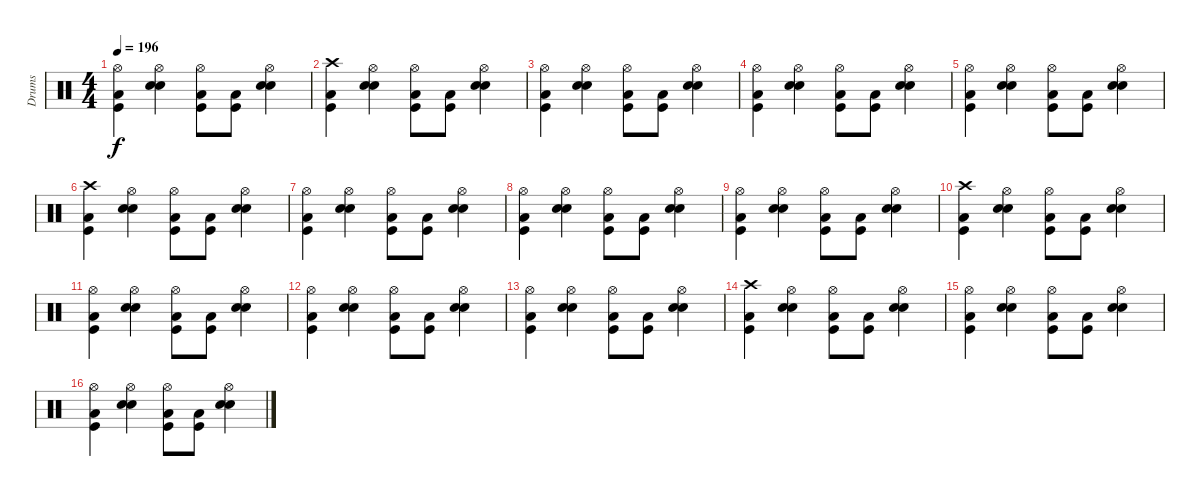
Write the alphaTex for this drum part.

\track ("Drums" "Drums") {instrument percussion}
\staff {score}
\articulation defaults
\ts (4 4)
\tempo 196
\clef neutral
\ks c
("Hi-Hat (open)" "Kick (hit)" "Low Tom (hit)").4{dy f} ("Hi-Hat (open)" "Snare (hit) 2" "Electric Snare (hit)").4 ("Hi-Hat (open)" "Kick (hit)" "Low Tom (hit)").8 ("Kick (hit)" "Low Tom (hit)").8 ("Hi-Hat (open)" "Snare (hit) 2" "Electric Snare (hit)").4 |
("Crash high (hit)" "Kick (hit)" "Low Tom (hit)").4 ("Hi-Hat (open)" "Snare (hit) 2" "Electric Snare (hit)").4 ("Hi-Hat (open)" "Kick (hit)" "Low Tom (hit)").8 ("Kick (hit)" "Low Tom (hit)").8 ("Hi-Hat (open)" "Snare (hit) 2" "Electric Snare (hit)").4 |
("Hi-Hat (open)" "Kick (hit)" "Low Tom (hit)").4 ("Hi-Hat (open)" "Snare (hit) 2" "Electric Snare (hit)").4 ("Hi-Hat (open)" "Kick (hit)" "Low Tom (hit)").8 ("Kick (hit)" "Low Tom (hit)").8 ("Hi-Hat (open)" "Snare (hit) 2" "Electric Snare (hit)").4 |
("Hi-Hat (open)" "Kick (hit)" "Low Tom (hit)").4 ("Hi-Hat (open)" "Snare (hit) 2" "Electric Snare (hit)").4 ("Hi-Hat (open)" "Kick (hit)" "Low Tom (hit)").8 ("Kick (hit)" "Low Tom (hit)").8 ("Hi-Hat (open)" "Snare (hit) 2" "Electric Snare (hit)").4 |
("Hi-Hat (open)" "Kick (hit)" "Low Tom (hit)").4 ("Hi-Hat (open)" "Snare (hit) 2" "Electric Snare (hit)").4 ("Hi-Hat (open)" "Kick (hit)" "Low Tom (hit)").8 ("Kick (hit)" "Low Tom (hit)").8 ("Hi-Hat (open)" "Snare (hit) 2" "Electric Snare (hit)").4 |
("Crash high (hit)" "Kick (hit)" "Low Tom (hit)").4 ("Hi-Hat (open)" "Snare (hit) 2" "Electric Snare (hit)").4 ("Hi-Hat (open)" "Kick (hit)" "Low Tom (hit)").8 ("Kick (hit)" "Low Tom (hit)").8 ("Hi-Hat (open)" "Snare (hit) 2" "Electric Snare (hit)").4 |
("Hi-Hat (open)" "Kick (hit)" "Low Tom (hit)").4 ("Hi-Hat (open)" "Snare (hit) 2" "Electric Snare (hit)").4 ("Hi-Hat (open)" "Kick (hit)" "Low Tom (hit)").8 ("Kick (hit)" "Low Tom (hit)").8 ("Hi-Hat (open)" "Snare (hit) 2" "Electric Snare (hit)").4 |
("Hi-Hat (open)" "Kick (hit)" "Low Tom (hit)").4 ("Hi-Hat (open)" "Snare (hit) 2" "Electric Snare (hit)").4 ("Hi-Hat (open)" "Kick (hit)" "Low Tom (hit)").8 ("Kick (hit)" "Low Tom (hit)").8 ("Hi-Hat (open)" "Snare (hit) 2" "Electric Snare (hit)").4 |
("Hi-Hat (open)" "Kick (hit)" "Low Tom (hit)").4 ("Hi-Hat (open)" "Snare (hit) 2" "Electric Snare (hit)").4 ("Hi-Hat (open)" "Kick (hit)" "Low Tom (hit)").8 ("Kick (hit)" "Low Tom (hit)").8 ("Hi-Hat (open)" "Snare (hit) 2" "Electric Snare (hit)").4 |
("Crash high (hit)" "Kick (hit)" "Low Tom (hit)").4 ("Hi-Hat (open)" "Snare (hit) 2" "Electric Snare (hit)").4 ("Hi-Hat (open)" "Kick (hit)" "Low Tom (hit)").8 ("Kick (hit)" "Low Tom (hit)").8 ("Hi-Hat (open)" "Snare (hit) 2" "Electric Snare (hit)").4 |
("Hi-Hat (open)" "Kick (hit)" "Low Tom (hit)").4 ("Hi-Hat (open)" "Snare (hit) 2" "Electric Snare (hit)").4 ("Hi-Hat (open)" "Kick (hit)" "Low Tom (hit)").8 ("Kick (hit)" "Low Tom (hit)").8 ("Hi-Hat (open)" "Snare (hit) 2" "Electric Snare (hit)").4 |
("Hi-Hat (open)" "Kick (hit)" "Low Tom (hit)").4 ("Hi-Hat (open)" "Snare (hit) 2" "Electric Snare (hit)").4 ("Hi-Hat (open)" "Kick (hit)" "Low Tom (hit)").8 ("Kick (hit)" "Low Tom (hit)").8 ("Hi-Hat (open)" "Snare (hit) 2" "Electric Snare (hit)").4 |
("Hi-Hat (open)" "Kick (hit)" "Low Tom (hit)").4 ("Hi-Hat (open)" "Snare (hit) 2" "Electric Snare (hit)").4 ("Hi-Hat (open)" "Kick (hit)" "Low Tom (hit)").8 ("Kick (hit)" "Low Tom (hit)").8 ("Hi-Hat (open)" "Snare (hit) 2" "Electric Snare (hit)").4 |
("Crash high (hit)" "Kick (hit)" "Low Tom (hit)").4 ("Hi-Hat (open)" "Snare (hit) 2" "Electric Snare (hit)").4 ("Hi-Hat (open)" "Kick (hit)" "Low Tom (hit)").8 ("Kick (hit)" "Low Tom (hit)").8 ("Hi-Hat (open)" "Snare (hit) 2" "Electric Snare (hit)").4 |
("Hi-Hat (open)" "Kick (hit)" "Low Tom (hit)").4 ("Hi-Hat (open)" "Snare (hit) 2" "Electric Snare (hit)").4 ("Hi-Hat (open)" "Kick (hit)" "Low Tom (hit)").8 ("Kick (hit)" "Low Tom (hit)").8 ("Hi-Hat (open)" "Snare (hit) 2" "Electric Snare (hit)").4 |
("Hi-Hat (open)" "Kick (hit)" "Low Tom (hit)").4 ("Hi-Hat (open)" "Snare (hit) 2" "Electric Snare (hit)").4 ("Hi-Hat (open)" "Kick (hit)" "Low Tom (hit)").8 ("Kick (hit)" "Low Tom (hit)").8 ("Hi-Hat (open)" "Snare (hit) 2" "Electric Snare (hit)").4
